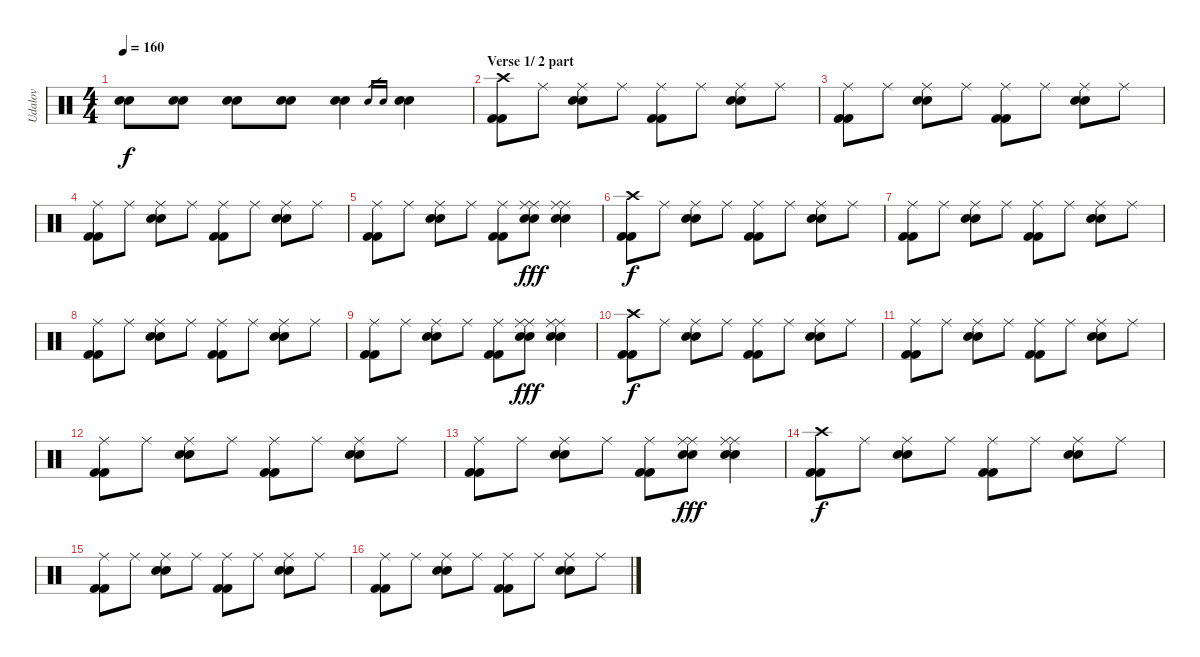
\track ("Udalov" "Udalov") {instrument percussion}
\staff {score}
\articulation defaults
\ts (4 4)
\tempo 160
\clef neutral
\ks c
("Electric Snare (hit)" "Electric Snare (hit)").8{dy f} ("Electric Snare (hit)" "Electric Snare (hit)").8 ("Electric Snare (hit)" "Electric Snare (hit)").8 ("Electric Snare (hit)" "Electric Snare (hit)").8 ("Electric Snare (hit)" "Electric Snare (hit)").4 "Electric Snare (hit)".16{gr} "Electric Snare (hit)".16{gr} ("Electric Snare (hit)" "Electric Snare (hit)").4 |
\section ("" "Verse 1/ 2 part")
("Crash high (hit)" "Kick (hit) 2" "Kick (hit) 2").8 "Ride (middle)".8 ("Ride (middle)" "Electric Snare (hit)" "Electric Snare (hit)").8 "Ride (middle)".8 ("Ride (middle)" "Kick (hit) 2" "Kick (hit) 2").8 "Ride (middle)".8 ("Ride (middle)" "Electric Snare (hit)" "Electric Snare (hit)").8 "Ride (middle)".8 |
("Ride (middle)" "Kick (hit) 2" "Kick (hit) 2").8 "Ride (middle)".8 ("Ride (middle)" "Electric Snare (hit)" "Electric Snare (hit)").8 "Ride (middle)".8 ("Ride (middle)" "Kick (hit) 2" "Kick (hit) 2").8 "Ride (middle)".8 ("Ride (middle)" "Electric Snare (hit)" "Electric Snare (hit)").8 "Ride (middle)".8 |
("Ride (middle)" "Kick (hit) 2" "Kick (hit) 2").8 "Ride (middle)".8 ("Ride (middle)" "Electric Snare (hit)" "Electric Snare (hit)").8 "Ride (middle)".8 ("Ride (middle)" "Kick (hit) 2" "Kick (hit) 2").8 "Ride (middle)".8 ("Ride (middle)" "Electric Snare (hit)" "Electric Snare (hit)").8 "Ride (middle)".8 |
("Ride (middle)" "Kick (hit) 2" "Kick (hit) 2").8 "Ride (middle)".8 ("Ride (middle)" "Electric Snare (hit)" "Electric Snare (hit)").8 "Ride (middle)".8 ("Ride (middle)" "Kick (hit) 2" "Kick (hit) 2").8 ("Ride (middle)" "Ride (middle)" "Electric Snare (hit)" "Electric Snare (hit)").8{dy fff} ("Ride (middle)" "Ride (middle)" "Electric Snare (hit)" "Electric Snare (hit)").4 |
("Crash high (hit)" "Kick (hit) 2" "Kick (hit) 2").8{dy f} "Ride (middle)".8 ("Ride (middle)" "Electric Snare (hit)" "Electric Snare (hit)").8 "Ride (middle)".8 ("Ride (middle)" "Kick (hit) 2" "Kick (hit) 2").8 "Ride (middle)".8 ("Ride (middle)" "Electric Snare (hit)" "Electric Snare (hit)").8 "Ride (middle)".8 |
("Ride (middle)" "Kick (hit) 2" "Kick (hit) 2").8 "Ride (middle)".8 ("Ride (middle)" "Electric Snare (hit)" "Electric Snare (hit)").8 "Ride (middle)".8 ("Ride (middle)" "Kick (hit) 2" "Kick (hit) 2").8 "Ride (middle)".8 ("Ride (middle)" "Electric Snare (hit)" "Electric Snare (hit)").8 "Ride (middle)".8 |
("Ride (middle)" "Kick (hit) 2" "Kick (hit) 2").8 "Ride (middle)".8 ("Ride (middle)" "Electric Snare (hit)" "Electric Snare (hit)").8 "Ride (middle)".8 ("Ride (middle)" "Kick (hit) 2" "Kick (hit) 2").8 "Ride (middle)".8 ("Ride (middle)" "Electric Snare (hit)" "Electric Snare (hit)").8 "Ride (middle)".8 |
("Ride (middle)" "Kick (hit) 2" "Kick (hit) 2").8 "Ride (middle)".8 ("Ride (middle)" "Electric Snare (hit)" "Electric Snare (hit)").8 "Ride (middle)".8 ("Ride (middle)" "Kick (hit) 2" "Kick (hit) 2").8 ("Ride (middle)" "Ride (middle)" "Electric Snare (hit)" "Electric Snare (hit)").8{dy fff} ("Ride (middle)" "Ride (middle)" "Electric Snare (hit)" "Electric Snare (hit)").4 |
("Crash high (hit)" "Kick (hit) 2" "Kick (hit) 2").8{dy f} "Ride (middle)".8 ("Ride (middle)" "Electric Snare (hit)" "Electric Snare (hit)").8 "Ride (middle)".8 ("Ride (middle)" "Kick (hit) 2" "Kick (hit) 2").8 "Ride (middle)".8 ("Ride (middle)" "Electric Snare (hit)" "Electric Snare (hit)").8 "Ride (middle)".8 |
("Ride (middle)" "Kick (hit) 2" "Kick (hit) 2").8 "Ride (middle)".8 ("Ride (middle)" "Electric Snare (hit)" "Electric Snare (hit)").8 "Ride (middle)".8 ("Ride (middle)" "Kick (hit) 2" "Kick (hit) 2").8 "Ride (middle)".8 ("Ride (middle)" "Electric Snare (hit)" "Electric Snare (hit)").8 "Ride (middle)".8 |
("Ride (middle)" "Kick (hit) 2" "Kick (hit) 2").8 "Ride (middle)".8 ("Ride (middle)" "Electric Snare (hit)" "Electric Snare (hit)").8 "Ride (middle)".8 ("Ride (middle)" "Kick (hit) 2" "Kick (hit) 2").8 "Ride (middle)".8 ("Ride (middle)" "Electric Snare (hit)" "Electric Snare (hit)").8 "Ride (middle)".8 |
("Ride (middle)" "Kick (hit) 2" "Kick (hit) 2").8 "Ride (middle)".8 ("Ride (middle)" "Electric Snare (hit)" "Electric Snare (hit)").8 "Ride (middle)".8 ("Ride (middle)" "Kick (hit) 2" "Kick (hit) 2").8 ("Ride (middle)" "Ride (middle)" "Electric Snare (hit)" "Electric Snare (hit)").8{dy fff} ("Ride (middle)" "Ride (middle)" "Electric Snare (hit)" "Electric Snare (hit)").4 |
("Crash high (hit)" "Kick (hit) 2" "Kick (hit) 2").8{dy f} "Ride (middle)".8 ("Ride (middle)" "Electric Snare (hit)" "Electric Snare (hit)").8 "Ride (middle)".8 ("Ride (middle)" "Kick (hit) 2" "Kick (hit) 2").8 "Ride (middle)".8 ("Ride (middle)" "Electric Snare (hit)" "Electric Snare (hit)").8 "Ride (middle)".8 |
("Ride (middle)" "Kick (hit) 2" "Kick (hit) 2").8 "Ride (middle)".8 ("Ride (middle)" "Electric Snare (hit)" "Electric Snare (hit)").8 "Ride (middle)".8 ("Ride (middle)" "Kick (hit) 2" "Kick (hit) 2").8 "Ride (middle)".8 ("Ride (middle)" "Electric Snare (hit)" "Electric Snare (hit)").8 "Ride (middle)".8 |
("Ride (middle)" "Kick (hit) 2" "Kick (hit) 2").8 "Ride (middle)".8 ("Ride (middle)" "Electric Snare (hit)" "Electric Snare (hit)").8 "Ride (middle)".8 ("Ride (middle)" "Kick (hit) 2" "Kick (hit) 2").8 "Ride (middle)".8 ("Ride (middle)" "Electric Snare (hit)" "Electric Snare (hit)").8 "Ride (middle)".8
